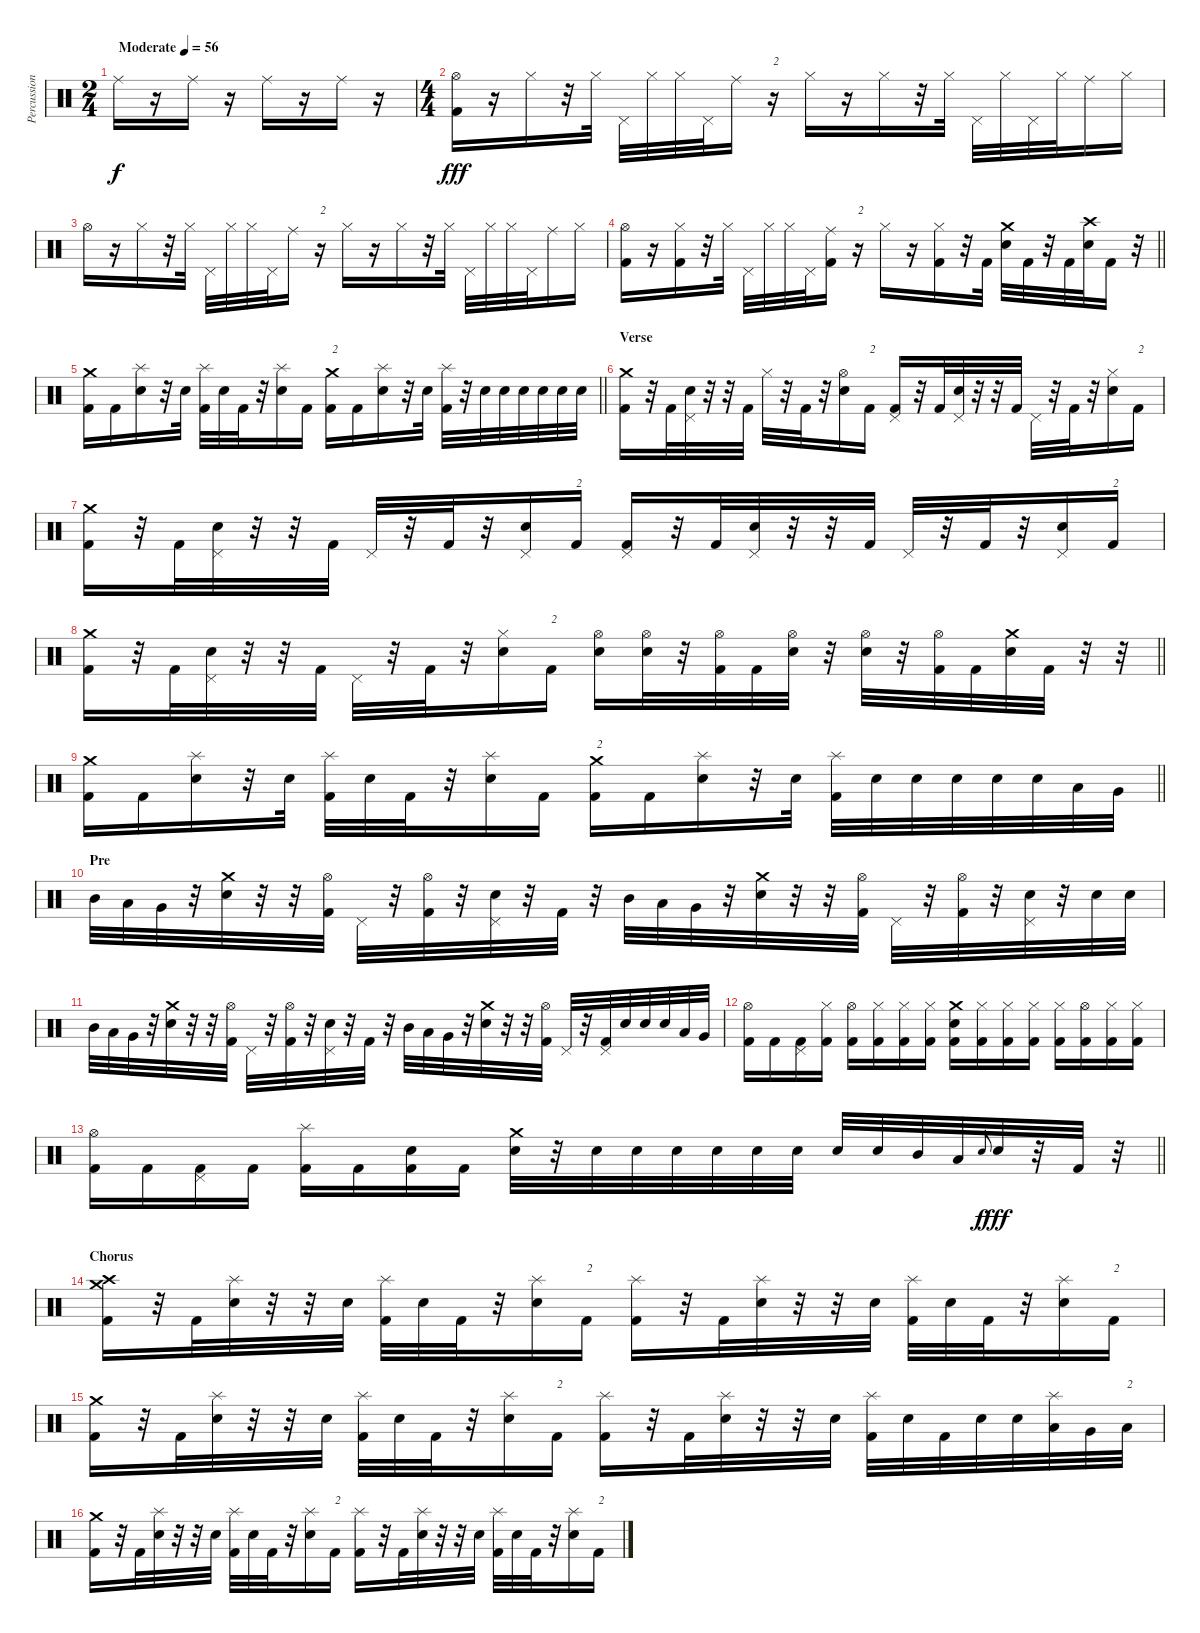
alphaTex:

\track ("Percussion" "Percussion") {instrument percussion}
\staff {score}
\articulation defaults
\ts (2 4)
\tempo (56 "Moderate")
\clef neutral
\ks c "Ride (middle)".16{dy f}
r.16 "Ride (middle)".16 r.16 "Ride (middle)".16 r.16 "Ride (middle)".16 r.16 |
\ts (4 4)
("Hi-Hat (open)" "Kick (hit) 2").16{dy fff} r.16 "Hi-Hat (closed)".16 r.32 "Hi-Hat (closed)".32 "Pedal Hi-Hat (hit)".32 "Hi-Hat (closed)".32 "Hi-Hat (closed)".32 "Pedal Hi-Hat (hit)".32 "Ride (middle)".16 r.16{txt "2"} "Hi-Hat (closed)".16 r.16 "Hi-Hat (closed)".16 r.32 "Hi-Hat (closed)".32 "Pedal Hi-Hat (hit)".32 "Hi-Hat (closed)".32 "Pedal Hi-Hat (hit)".32 "Hi-Hat (closed)".32 "Ride (middle)".16 "Hi-Hat (closed)".16 |
"Hi-Hat (open)".16 r.16 "Hi-Hat (closed)".16 r.32 "Hi-Hat (closed)".32 "Pedal Hi-Hat (hit)".32 "Hi-Hat (closed)".32 "Hi-Hat (closed)".32 "Pedal Hi-Hat (hit)".32 "Ride (middle)".16 r.16{txt "2"} "Hi-Hat (closed)".16 r.16 "Hi-Hat (closed)".16 r.32 "Hi-Hat (closed)".32 "Pedal Hi-Hat (hit)".32 "Hi-Hat (closed)".32 "Hi-Hat (closed)".32 "Pedal Hi-Hat (hit)".32 "Ride (middle)".16 "Hi-Hat (closed)".16 |
\barLineRight lightlight
("Hi-Hat (open)" "Kick (hit) 2").16 r.16 ("Hi-Hat (closed)" "Kick (hit) 2").16 r.32 "Hi-Hat (closed)".32 "Pedal Hi-Hat (hit)".32 "Hi-Hat (closed)".32 "Hi-Hat (closed)".32 "Pedal Hi-Hat (hit)".32 ("Ride (middle)" "Kick (hit) 2").16 r.16{txt "2"} "Hi-Hat (closed)".16 r.16 ("Hi-Hat (closed)" "Kick (hit) 2").16 r.32 "Kick (hit) 2".32 ("Crash medium (hit)" "Electric Snare (hit)").32 "Kick (hit) 2".32 r.32 "Kick (hit) 2".32 ("Crash high (hit)" "Electric Snare (hit)").32 "Kick (hit) 2".16 r.32 |
\section ("" "")
\barLineRight lightlight
("Crash medium (hit)" "Kick (hit) 2").16 "Kick (hit) 2".16 ("Splash (hit)" "Electric Snare (hit)").16 r.32 "Electric Snare (hit)".32 ("Splash (hit)" "Kick (hit) 2").32 "Electric Snare (hit)".32 "Kick (hit) 2".32 r.32 ("Splash (hit)" "Electric Snare (hit)").16 "Kick (hit) 2".16 ("Crash medium (hit)" "Kick (hit) 2").16{txt "2"} "Kick (hit) 2".16 ("Splash (hit)" "Electric Snare (hit)").16 r.32 "Electric Snare (hit)".32 ("Splash (hit)" "Kick (hit) 2").32 r.32 "Electric Snare (hit)".32 "Electric Snare (hit)".32 "Electric Snare (hit)".32 "Electric Snare (hit)".32 "Electric Snare (hit)".32 "Electric Snare (hit)".32 |
\section ("" "Verse")
("Crash medium (hit)" "Kick (hit) 2").16 r.32 "Kick (hit) 2".32 ("Pedal Hi-Hat (hit)" "Electric Snare (hit)").32 r.32 r.32 "Kick (hit) 2".32 "Hi-Hat (closed)".32 r.32 "Kick (hit) 2".32 r.32 ("Hi-Hat (open)" "Electric Snare (hit)").16 "Kick (hit) 2".16{txt "2"} ("Pedal Hi-Hat (hit)" "Kick (hit) 2").16 r.32 "Kick (hit) 2".32 ("Pedal Hi-Hat (hit)" "Electric Snare (hit)").32 r.32 r.32 "Kick (hit) 2".32 "Pedal Hi-Hat (hit)".32 r.32 "Kick (hit) 2".32 r.32 ("Hi-Hat (closed)" "Electric Snare (hit)").16 "Kick (hit) 2".16{txt "2"} |
("Crash medium (hit)" "Kick (hit) 2").16 r.32 "Kick (hit) 2".32 ("Pedal Hi-Hat (hit)" "Electric Snare (hit)").32 r.32 r.32 "Kick (hit) 2".32 "Pedal Hi-Hat (hit)".32 r.32 "Kick (hit) 2".32 r.32 ("Pedal Hi-Hat (hit)" "Electric Snare (hit)").16 "Kick (hit) 2".16{txt "2"} ("Pedal Hi-Hat (hit)" "Kick (hit) 2").16 r.32 "Kick (hit) 2".32 ("Pedal Hi-Hat (hit)" "Electric Snare (hit)").32 r.32 r.32 "Kick (hit) 2".32 "Pedal Hi-Hat (hit)".32 r.32 "Kick (hit) 2".32 r.32 ("Pedal Hi-Hat (hit)" "Electric Snare (hit)").16 "Kick (hit) 2".16{txt "2"} |
\barLineRight lightlight
("Crash medium (hit)" "Kick (hit) 2").16 r.32 "Kick (hit) 2".32 ("Pedal Hi-Hat (hit)" "Electric Snare (hit)").32 r.32 r.32 "Kick (hit) 2".32 "Pedal Hi-Hat (hit)".32 r.32 "Kick (hit) 2".32 r.32 ("Hi-Hat (closed)" "Electric Snare (hit)").16 "Kick (hit) 2".16{txt "2"} ("Hi-Hat (open)" "Electric Snare (hit)").16 ("Hi-Hat (open)" "Electric Snare (hit)").32 r.32 ("Hi-Hat (open)" "Kick (hit) 2").32 "Kick (hit) 2".32 ("Hi-Hat (open)" "Electric Snare (hit)").32 r.32 ("Hi-Hat (open)" "Electric Snare (hit)").32 r.32 ("Hi-Hat (open)" "Kick (hit) 2").32 "Kick (hit) 2".32 ("Crash medium (hit)" "Electric Snare (hit)").32 "Kick (hit) 2".32 r.32 r.32 |
\barLineRight lightlight
("Crash medium (hit)" "Kick (hit) 2").16 "Kick (hit) 2".16 ("Splash (hit)" "Electric Snare (hit)").16 r.32 "Electric Snare (hit)".32 ("Splash (hit)" "Kick (hit) 2").32 "Electric Snare (hit)".32 "Kick (hit) 2".32 r.32 ("Splash (hit)" "Electric Snare (hit)").16 "Kick (hit) 2".16 ("Crash medium (hit)" "Kick (hit) 2").16{txt "2"} "Kick (hit) 2".16 ("Splash (hit)" "Electric Snare (hit)").16 r.32 "Electric Snare (hit)".32 ("Splash (hit)" "Kick (hit) 2").32 "Electric Snare (hit)".32 "Electric Snare (hit)".32 "Electric Snare (hit)".32 "Electric Snare (hit)".32 "Electric Snare (hit)".32 "Low Tom (hit)".32 "Very Low Tom (hit)".32 |
\section ("" "Pre")
"Mid Tom (hit)".32 "Low Tom (hit)".32 "Very Low Tom (hit)".32 r.32 ("Crash medium (hit)" "Electric Snare (hit)").32 r.32 r.32 ("Hi-Hat (open)" "Kick (hit) 2").32 "Pedal Hi-Hat (hit)".32 r.32 ("Hi-Hat (open)" "Kick (hit) 2").32 r.32 ("Pedal Hi-Hat (hit)" "Electric Snare (hit)").32 r.32 "Kick (hit) 2".32 r.32 "Mid Tom (hit)".32 "Low Tom (hit)".32 "Very Low Tom (hit)".32 r.32 ("Crash medium (hit)" "Electric Snare (hit)").32 r.32 r.32 ("Hi-Hat (open)" "Kick (hit) 2").32 "Pedal Hi-Hat (hit)".32 r.32 ("Hi-Hat (open)" "Kick (hit) 2").32 r.32 ("Pedal Hi-Hat (hit)" "Electric Snare (hit)").32 r.32 "Electric Snare (hit)".32 "Electric Snare (hit)".32 |
"Mid Tom (hit)".32 "Low Tom (hit)".32 "Very Low Tom (hit)".32 r.32 ("Crash medium (hit)" "Electric Snare (hit)").32 r.32 r.32 ("Hi-Hat (open)" "Kick (hit) 2").32 "Pedal Hi-Hat (hit)".32 r.32 ("Hi-Hat (open)" "Kick (hit) 2").32 r.32 ("Pedal Hi-Hat (hit)" "Electric Snare (hit)").32 r.32 "Kick (hit) 2".32 r.32 "Mid Tom (hit)".32 "Low Tom (hit)".32 "Very Low Tom (hit)".32 r.32 ("Crash medium (hit)" "Electric Snare (hit)").32 r.32 r.32 ("Hi-Hat (open)" "Kick (hit) 2").32 "Pedal Hi-Hat (hit)".32 r.32 ("Pedal Hi-Hat (hit)" "Kick (hit) 2").32 "Electric Snare (hit)".32 "Electric Snare (hit)".32 "Electric Snare (hit)".32 "Low Tom (hit)".32 "Very Low Tom (hit)".32 |
("Hi-Hat (open)" "Kick (hit) 2").16 "Kick (hit) 2".16 ("Pedal Hi-Hat (hit)" "Kick (hit) 2").16 ("Hi-Hat (closed)" "Kick (hit) 2").16 ("Hi-Hat (open)" "Kick (hit) 2").16 ("Hi-Hat (closed)" "Kick (hit) 2").16 ("Hi-Hat (closed)" "Kick (hit) 2").16 ("Hi-Hat (closed)" "Kick (hit) 2").16 ("Crash medium (hit)" "Electric Snare (hit)" "Kick (hit) 2").16 ("Hi-Hat (closed)" "Kick (hit) 2").16 ("Hi-Hat (closed)" "Kick (hit) 2").16 ("Hi-Hat (closed)" "Kick (hit) 2").16 ("Hi-Hat (closed)" "Kick (hit) 2").16 ("Hi-Hat (open)" "Kick (hit) 2").16 ("Hi-Hat (closed)" "Kick (hit) 2").16 ("Hi-Hat (closed)" "Kick (hit) 2").16 |
\barLineRight lightlight
("Hi-Hat (open)" "Kick (hit) 2").16 "Kick (hit) 2".16 ("Pedal Hi-Hat (hit)" "Kick (hit) 2").16 "Kick (hit) 2".16 ("Splash (hit)" "Kick (hit) 2").16 "Kick (hit) 2".16 ("Electric Snare (hit)" "Kick (hit) 2").16 "Kick (hit) 2".16 ("Crash medium (hit)" "Electric Snare (hit)").32 r.32 "Electric Snare (hit)".32 "Electric Snare (hit)".32 "Electric Snare (hit)".32 "Electric Snare (hit)".32 "Electric Snare (hit)".32 "Electric Snare (hit)".32 "Electric Snare (hit)".32 "Electric Snare (hit)".32 "Mid Tom (hit)".32 "Low Tom (hit)".32 "Electric Snare (hit)".8{gr onbeat dy f} "Electric Snare (hit)".32{dy fff} r.32 "Kick (hit) 2".32 r.32 |
\section ("" "Chorus")
("Crash medium (hit)" "Crash high (hit)" "Kick (hit) 2").16 r.32 "Kick (hit) 2".32 ("Splash (hit)" "Electric Snare (hit)").32 r.32 r.32 "Electric Snare (hit)".32 ("Splash (hit)" "Kick (hit) 2").32 "Electric Snare (hit)".32 "Kick (hit) 2".32 r.32 ("Splash (hit)" "Electric Snare (hit)").16 "Kick (hit) 2".16{txt "2"} ("Splash (hit)" "Kick (hit) 2").16 r.32 "Kick (hit) 2".32 ("Splash (hit)" "Electric Snare (hit)").32 r.32 r.32 "Electric Snare (hit)".32 ("Splash (hit)" "Kick (hit) 2").32 "Electric Snare (hit)".32 "Kick (hit) 2".32 r.32 ("Splash (hit)" "Electric Snare (hit)").16 "Kick (hit) 2".16{txt "2"} |
("Crash medium (hit)" "Kick (hit) 2").16 r.32 "Kick (hit) 2".32 ("Splash (hit)" "Electric Snare (hit)").32 r.32 r.32 "Electric Snare (hit)".32 ("Splash (hit)" "Kick (hit) 2").32 "Electric Snare (hit)".32 "Kick (hit) 2".32 r.32 ("Splash (hit)" "Electric Snare (hit)").16 "Kick (hit) 2".16{txt "2"} ("Splash (hit)" "Kick (hit) 2").16 r.32 "Kick (hit) 2".32 ("Splash (hit)" "Electric Snare (hit)").32 r.32 r.32 "Electric Snare (hit)".32 ("Splash (hit)" "Kick (hit) 2").32 "Electric Snare (hit)".32 "Kick (hit) 2".32 "Electric Snare (hit)".32 "Electric Snare (hit)".32 ("Splash (hit)" "Low Tom (hit)").32 "Very Low Tom (hit)".32 "Low Floor Tom (hit)".32{txt "2"} |
("Crash medium (hit)" "Kick (hit) 2").16 r.32 "Kick (hit) 2".32 ("Splash (hit)" "Electric Snare (hit)").32 r.32 r.32 "Electric Snare (hit)".32 ("Splash (hit)" "Kick (hit) 2").32 "Electric Snare (hit)".32 "Kick (hit) 2".32 r.32 ("Splash (hit)" "Electric Snare (hit)").16 "Kick (hit) 2".16{txt "2"} ("Splash (hit)" "Kick (hit) 2").16 r.32 "Kick (hit) 2".32 ("Splash (hit)" "Electric Snare (hit)").32 r.32 r.32 "Electric Snare (hit)".32 ("Splash (hit)" "Kick (hit) 2").32 "Electric Snare (hit)".32 "Kick (hit) 2".32 r.32 ("Splash (hit)" "Electric Snare (hit)").16 "Kick (hit) 2".16{txt "2"}
